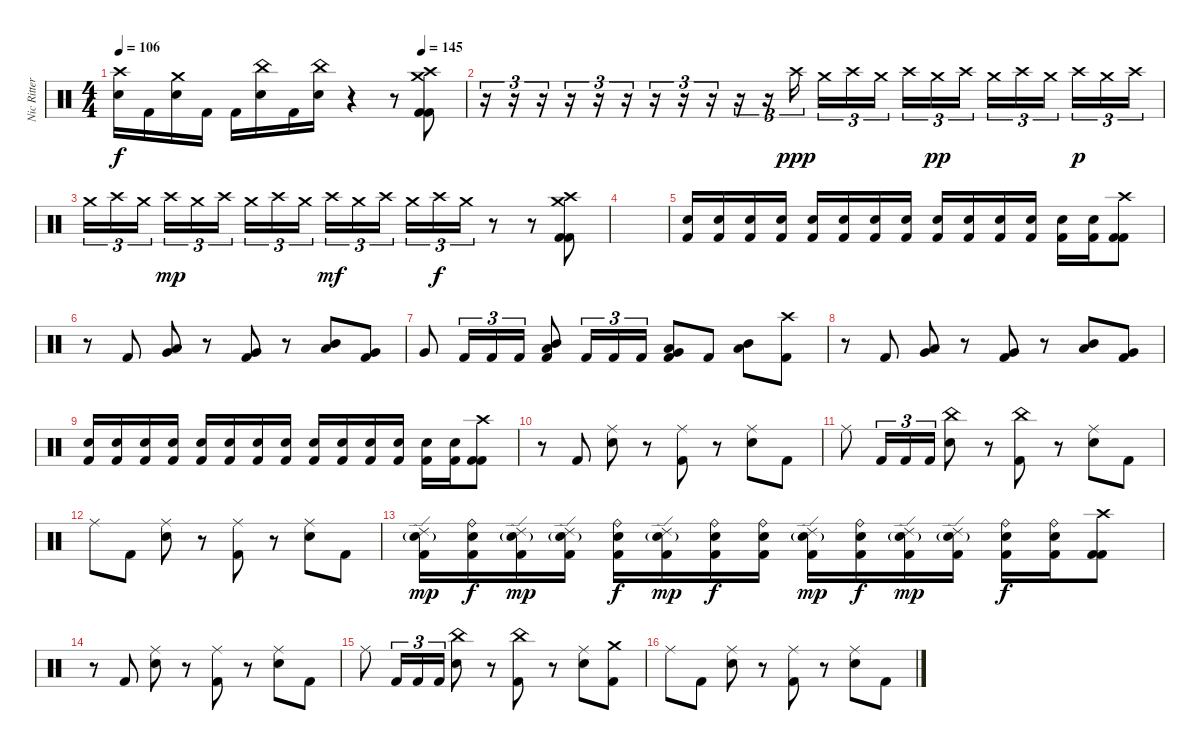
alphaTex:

\track ("Nic Ritter" "Nic Ritter") {instrument percussion}
\staff {score}
\articulation defaults
\ts (4 4)
\tempo 106
\tempo (145 0.875)
\clef neutral
\ks c
("Crash high (hit)" "Electric Snare (hit)").16{dy f} "Kick (hit) 2".16 ("Crash medium (hit)" "Electric Snare (hit)").16 "Kick (hit) 2".16 "Kick (hit) 2".16 ("China (hit)" "Electric Snare (hit)").16 "Kick (hit) 2".16 ("China (hit)" "Electric Snare (hit)").16 r.4 r.8 ("Crash medium (hit)" "Crash high (hit)" "Kick (hit) 2" "Kick (hit) 2").8 |
r.16{tu (3 2)} r.16{tu (3 2)} r.16{tu (3 2)} r.16{tu (3 2)} r.16{tu (3 2)} r.16{tu (3 2)} r.16{tu (3 2)} r.16{tu (3 2)} r.16{tu (3 2)} r.16{tu (3 2)} r.16{tu (3 2)} "Crash high (hit)".16{tu (3 2) dy ppp} "Crash medium (hit)".16{tu (3 2)} "Crash high (hit)".16{tu (3 2)} "Crash medium (hit)".16{tu (3 2) beam splitsecondary} "Crash high (hit)".16{tu (3 2)} "Crash medium (hit)".16{tu (3 2) dy pp} "Crash high (hit)".16{tu (3 2)} "Crash medium (hit)".16{tu (3 2)} "Crash high (hit)".16{tu (3 2)} "Crash medium (hit)".16{tu (3 2) beam splitsecondary} "Crash high (hit)".16{tu (3 2) dy p} "Crash medium (hit)".16{tu (3 2)} "Crash high (hit)".16{tu (3 2)} |
"Crash medium (hit)".16{tu (3 2)} "Crash high (hit)".16{tu (3 2)} "Crash medium (hit)".16{tu (3 2) beam splitsecondary} "Crash high (hit)".16{tu (3 2) dy mp} "Crash medium (hit)".16{tu (3 2)} "Crash high (hit)".16{tu (3 2)} "Crash medium (hit)".16{tu (3 2)} "Crash high (hit)".16{tu (3 2)} "Crash medium (hit)".16{tu (3 2) beam splitsecondary} "Crash high (hit)".16{tu (3 2) dy mf} "Crash medium (hit)".16{tu (3 2)} "Crash high (hit)".16{tu (3 2)} "Crash medium (hit)".16{tu (3 2)} "Crash high (hit)".16{tu (3 2) dy f} "Crash medium (hit)".16{tu (3 2)} r.8 r.8 ("Crash medium (hit)" "Crash high (hit)" "Kick (hit) 2" "Kick (hit) 2").8 |
|
("Electric Snare (hit)" "Kick (hit) 2").16 ("Electric Snare (hit)" "Kick (hit) 2").16 ("Electric Snare (hit)" "Kick (hit) 2").16 ("Electric Snare (hit)" "Kick (hit) 2").16 ("Electric Snare (hit)" "Kick (hit) 2").16 ("Electric Snare (hit)" "Kick (hit) 2").16 ("Electric Snare (hit)" "Kick (hit) 2").16 ("Electric Snare (hit)" "Kick (hit) 2").16 ("Electric Snare (hit)" "Kick (hit) 2").16 ("Electric Snare (hit)" "Kick (hit) 2").16 ("Electric Snare (hit)" "Kick (hit) 2").16 ("Electric Snare (hit)" "Kick (hit) 2").16 ("Electric Snare (hit)" "Kick (hit) 2").16 ("Electric Snare (hit)" "Kick (hit) 2").16 ("Crash high (hit)" "Kick (hit) 2" "Kick (hit) 2").8 |
r.8 "Kick (hit) 2".8 ("Very Low Tom (hit)" "Low Tom (hit)").8{bd 120} r.8 ("Very Low Tom (hit)" "Kick (hit) 2").8 r.8 ("Mid Tom (hit)" "Low Tom (hit)").8{bu 120} ("Very Low Tom (hit)" "Kick (hit) 2").8 |
"Very Low Tom (hit)".8 "Kick (hit) 2".16{tu (3 2)} "Kick (hit) 2".16{tu (3 2)} "Kick (hit) 2".16{tu (3 2)} ("Mid Tom (hit)" "Low Tom (hit)" "Kick (hit) 2").8 "Kick (hit) 2".16{tu (3 2)} "Kick (hit) 2".16{tu (3 2)} "Kick (hit) 2".16{tu (3 2)} ("Low Tom (hit)" "Very Low Tom (hit)" "Kick (hit) 2").8 "Kick (hit) 2".8 ("Mid Tom (hit)" "Low Tom (hit)").8 ("Crash high (hit)" "Kick (hit) 2").8 |
r.8 "Kick (hit) 2".8 ("Very Low Tom (hit)" "Low Tom (hit)").8{bd 120} r.8 ("Very Low Tom (hit)" "Kick (hit) 2").8 r.8 ("Mid Tom (hit)" "Low Tom (hit)").8{bu 120} ("Very Low Tom (hit)" "Kick (hit) 2").8 |
("Electric Snare (hit)" "Kick (hit) 2").16 ("Electric Snare (hit)" "Kick (hit) 2").16 ("Electric Snare (hit)" "Kick (hit) 2").16 ("Electric Snare (hit)" "Kick (hit) 2").16 ("Electric Snare (hit)" "Kick (hit) 2").16 ("Electric Snare (hit)" "Kick (hit) 2").16 ("Electric Snare (hit)" "Kick (hit) 2").16 ("Electric Snare (hit)" "Kick (hit) 2").16 ("Electric Snare (hit)" "Kick (hit) 2").16 ("Electric Snare (hit)" "Kick (hit) 2").16 ("Electric Snare (hit)" "Kick (hit) 2").16 ("Electric Snare (hit)" "Kick (hit) 2").16 ("Electric Snare (hit)" "Kick (hit) 2").16 ("Electric Snare (hit)" "Kick (hit) 2").16 ("Crash high (hit)" "Kick (hit) 2" "Kick (hit) 2").8 |
r.8 "Kick (hit) 2".8 ("Ride (middle)" "Electric Snare (hit)").8 r.8 ("Ride (middle)" "Kick (hit) 2").8 r.8 ("Ride (middle)" "Electric Snare (hit)").8 "Kick (hit) 2".8 |
"Ride (middle)".8 "Kick (hit) 2".16{tu (3 2)} "Kick (hit) 2".16{tu (3 2)} "Kick (hit) 2".16{tu (3 2)} ("China (hit)" "Electric Snare (hit)").8 r.8 ("China (hit)" "Kick (hit) 2").8 r.8 ("Ride (middle)" "Electric Snare (hit)").8 "Kick (hit) 2".8 |
"Ride (middle)".8 "Kick (hit) 2".8 ("Ride (middle)" "Electric Snare (hit)").8 r.8 ("Ride (middle)" "Kick (hit) 2").8 r.8 ("Ride (middle)" "Electric Snare (hit)").8 "Kick (hit) 2".8 |
("Ride (edge) 2" "Electric Snare (hit)"{g} "Kick (hit) 2").16{dy mp} ("Ride (bell)" "Electric Snare (hit)" "Kick (hit) 2").16{dy f} ("Ride (edge) 2" "Electric Snare (hit)"{g} "Kick (hit) 2").16{dy mp} ("Ride (edge) 2" "Electric Snare (hit)"{g} "Kick (hit) 2").16 ("Ride (bell)" "Electric Snare (hit)" "Kick (hit) 2").16{dy f} ("Ride (edge) 2" "Electric Snare (hit)"{g} "Kick (hit) 2").16{dy mp} ("Ride (bell)" "Electric Snare (hit)" "Kick (hit) 2").16{dy f} ("Ride (bell)" "Electric Snare (hit)" "Kick (hit) 2").16 ("Ride (edge) 2" "Electric Snare (hit)"{g} "Kick (hit) 2").16{dy mp} ("Ride (bell)" "Electric Snare (hit)" "Kick (hit) 2").16{dy f} ("Ride (edge) 2" "Electric Snare (hit)"{g} "Kick (hit) 2").16{dy mp} ("Ride (edge) 2" "Electric Snare (hit)"{g} "Kick (hit) 2").16 ("Ride (bell)" "Electric Snare (hit)" "Kick (hit) 2").16{dy f} ("Ride (bell)" "Electric Snare (hit)" "Kick (hit) 2").16 ("Crash high (hit)" "Kick (hit) 2" "Kick (hit) 2").8 |
r.8 "Kick (hit) 2".8 ("Ride (middle)" "Electric Snare (hit)").8 r.8 ("Ride (middle)" "Kick (hit) 2").8 r.8 ("Ride (middle)" "Electric Snare (hit)").8 "Kick (hit) 2".8 |
"Ride (middle)".8 "Kick (hit) 2".16{tu (3 2)} "Kick (hit) 2".16{tu (3 2)} "Kick (hit) 2".16{tu (3 2)} ("China (hit)" "Electric Snare (hit)").8 r.8 ("China (hit)" "Kick (hit) 2").8 r.8 ("Ride (middle)" "Electric Snare (hit)").8 ("Crash medium (hit)" "Kick (hit) 2").8 |
"Ride (middle)".8 "Kick (hit) 2".8 ("Ride (middle)" "Electric Snare (hit)").8 r.8 ("Ride (middle)" "Kick (hit) 2").8 r.8 ("Ride (middle)" "Electric Snare (hit)").8 "Kick (hit) 2".8
